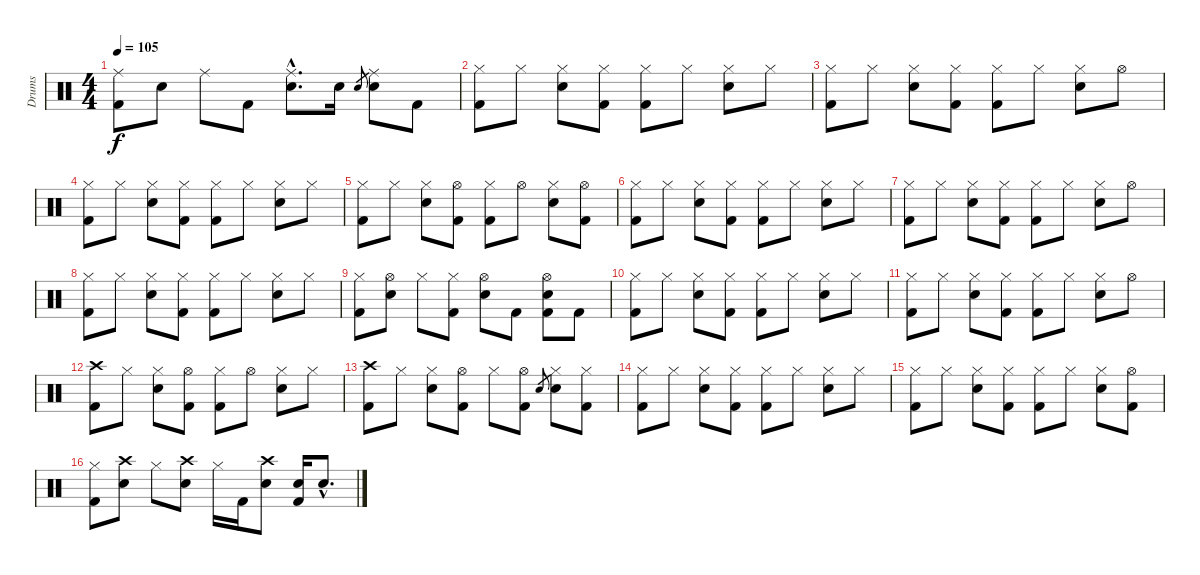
\track ("Drums" "Drums") {instrument percussion}
\staff {score}
\articulation defaults
\ts (4 4)
\tempo 105
\clef neutral
\ks c
("Ride (middle)" "Kick (hit) 2").8{dy f} "Electric Snare (hit)".8 "Ride (middle)".8 "Kick (hit) 2".8 ("Ride (middle)"{hac} "Electric Snare (hit)"{hac}).8{d} "Electric Snare (hit)".16 "Electric Snare (hit)".8{gr} ("Ride (middle)" "Electric Snare (hit)").8 "Kick (hit) 2".8 |
("Hi-Hat (closed)" "Kick (hit) 2").8 "Hi-Hat (closed)".8 ("Hi-Hat (closed)" "Electric Snare (hit)").8 ("Hi-Hat (closed)" "Kick (hit) 2").8 ("Hi-Hat (closed)" "Kick (hit) 2").8 "Hi-Hat (closed)".8 ("Hi-Hat (closed)" "Electric Snare (hit)").8 "Hi-Hat (closed)".8 |
("Hi-Hat (closed)" "Kick (hit) 2").8 "Hi-Hat (closed)".8 ("Hi-Hat (closed)" "Electric Snare (hit)").8 ("Hi-Hat (closed)" "Kick (hit) 2").8 ("Hi-Hat (closed)" "Kick (hit) 2").8 "Hi-Hat (closed)".8 ("Hi-Hat (closed)" "Electric Snare (hit)").8 "Hi-Hat (open)".8 |
("Hi-Hat (closed)" "Kick (hit) 2").8 "Hi-Hat (closed)".8 ("Hi-Hat (closed)" "Electric Snare (hit)").8 ("Hi-Hat (closed)" "Kick (hit) 2").8 ("Hi-Hat (closed)" "Kick (hit) 2").8 "Hi-Hat (closed)".8 ("Hi-Hat (closed)" "Electric Snare (hit)").8 "Hi-Hat (closed)".8 |
("Hi-Hat (closed)" "Kick (hit) 2").8 "Hi-Hat (closed)".8 ("Hi-Hat (closed)" "Electric Snare (hit)").8 ("Hi-Hat (open)" "Kick (hit) 2").8 ("Hi-Hat (closed)" "Kick (hit) 2").8 "Hi-Hat (open)".8 ("Hi-Hat (closed)" "Electric Snare (hit)").8 ("Hi-Hat (open)" "Kick (hit) 2").8 |
("Hi-Hat (closed)" "Kick (hit) 2").8 "Hi-Hat (closed)".8 ("Hi-Hat (closed)" "Electric Snare (hit)").8 ("Hi-Hat (closed)" "Kick (hit) 2").8 ("Hi-Hat (closed)" "Kick (hit) 2").8 "Hi-Hat (closed)".8 ("Hi-Hat (closed)" "Electric Snare (hit)").8 "Hi-Hat (closed)".8 |
("Hi-Hat (closed)" "Kick (hit) 2").8 "Hi-Hat (closed)".8 ("Hi-Hat (closed)" "Electric Snare (hit)").8 ("Hi-Hat (closed)" "Kick (hit) 2").8 ("Hi-Hat (closed)" "Kick (hit) 2").8 "Hi-Hat (closed)".8 ("Hi-Hat (closed)" "Electric Snare (hit)").8 "Hi-Hat (open)".8 |
("Hi-Hat (closed)" "Kick (hit) 2").8 "Hi-Hat (closed)".8 ("Hi-Hat (closed)" "Electric Snare (hit)").8 ("Hi-Hat (closed)" "Kick (hit) 2").8 ("Hi-Hat (closed)" "Kick (hit) 2").8 "Hi-Hat (closed)".8 ("Hi-Hat (closed)" "Electric Snare (hit)").8 "Hi-Hat (closed)".8 |
("Hi-Hat (closed)" "Kick (hit) 2").8 ("Hi-Hat (open)" "Electric Snare (hit)").8 "Hi-Hat (closed)".8 ("Hi-Hat (closed)" "Kick (hit) 2").8 ("Hi-Hat (open)" "Electric Snare (hit)").8 "Kick (hit) 2".8 ("Hi-Hat (open)" "Electric Snare (hit)" "Kick (hit) 2").8 "Kick (hit) 2".8 |
("Hi-Hat (closed)" "Kick (hit) 2").8 "Hi-Hat (closed)".8 ("Hi-Hat (closed)" "Electric Snare (hit)").8 ("Hi-Hat (closed)" "Kick (hit) 2").8 ("Hi-Hat (closed)" "Kick (hit) 2").8 "Hi-Hat (closed)".8 ("Hi-Hat (closed)" "Electric Snare (hit)").8 "Hi-Hat (closed)".8 |
("Hi-Hat (closed)" "Kick (hit) 2").8 "Hi-Hat (closed)".8 ("Hi-Hat (closed)" "Electric Snare (hit)").8 ("Hi-Hat (closed)" "Kick (hit) 2").8 ("Hi-Hat (closed)" "Kick (hit) 2").8 "Hi-Hat (closed)".8 ("Hi-Hat (closed)" "Electric Snare (hit)").8 "Hi-Hat (open)".8 |
("Crash high (hit)" "Kick (hit) 2").8 "Hi-Hat (closed)".8 ("Hi-Hat (closed)" "Electric Snare (hit)").8 ("Hi-Hat (open)" "Kick (hit) 2").8 ("Hi-Hat (closed)" "Kick (hit) 2").8 "Hi-Hat (open)".8 ("Hi-Hat (closed)" "Electric Snare (hit)").8 "Hi-Hat (closed)".8 |
("Crash high (hit)" "Kick (hit) 2").8 "Hi-Hat (closed)".8 ("Hi-Hat (closed)" "Electric Snare (hit)").8 ("Hi-Hat (open)" "Kick (hit) 2").8 "Hi-Hat (closed)".8 ("Hi-Hat (open)" "Kick (hit) 2").8 "Electric Snare (hit)".8{gr} ("Hi-Hat (closed)" "Electric Snare (hit)").8 ("Hi-Hat (closed)" "Kick (hit) 2").8 |
("Hi-Hat (closed)" "Kick (hit) 2").8 "Hi-Hat (closed)".8 ("Hi-Hat (closed)" "Electric Snare (hit)").8 ("Hi-Hat (closed)" "Kick (hit) 2").8 ("Hi-Hat (closed)" "Kick (hit) 2").8 "Hi-Hat (closed)".8 ("Hi-Hat (closed)" "Electric Snare (hit)").8 "Hi-Hat (closed)".8 |
("Hi-Hat (closed)" "Kick (hit) 2").8 "Hi-Hat (closed)".8 ("Hi-Hat (closed)" "Electric Snare (hit)").8 ("Hi-Hat (closed)" "Kick (hit) 2").8 ("Hi-Hat (closed)" "Kick (hit) 2").8 "Hi-Hat (closed)".8 ("Hi-Hat (closed)" "Electric Snare (hit)").8 ("Hi-Hat (open)" "Kick (hit) 2").8 |
("Hi-Hat (closed)" "Kick (hit) 2").8 ("Crash high (hit)" "Electric Snare (hit)").8 "Hi-Hat (closed)".8 ("Crash high (hit)" "Electric Snare (hit)").8 "Hi-Hat (closed)".16 "Kick (hit) 2".16 ("Crash high (hit)" "Electric Snare (hit)").8 ("Electric Snare (hit)" "Kick (hit) 2").16 "Electric Snare (hit)"{hac}.8{d}
